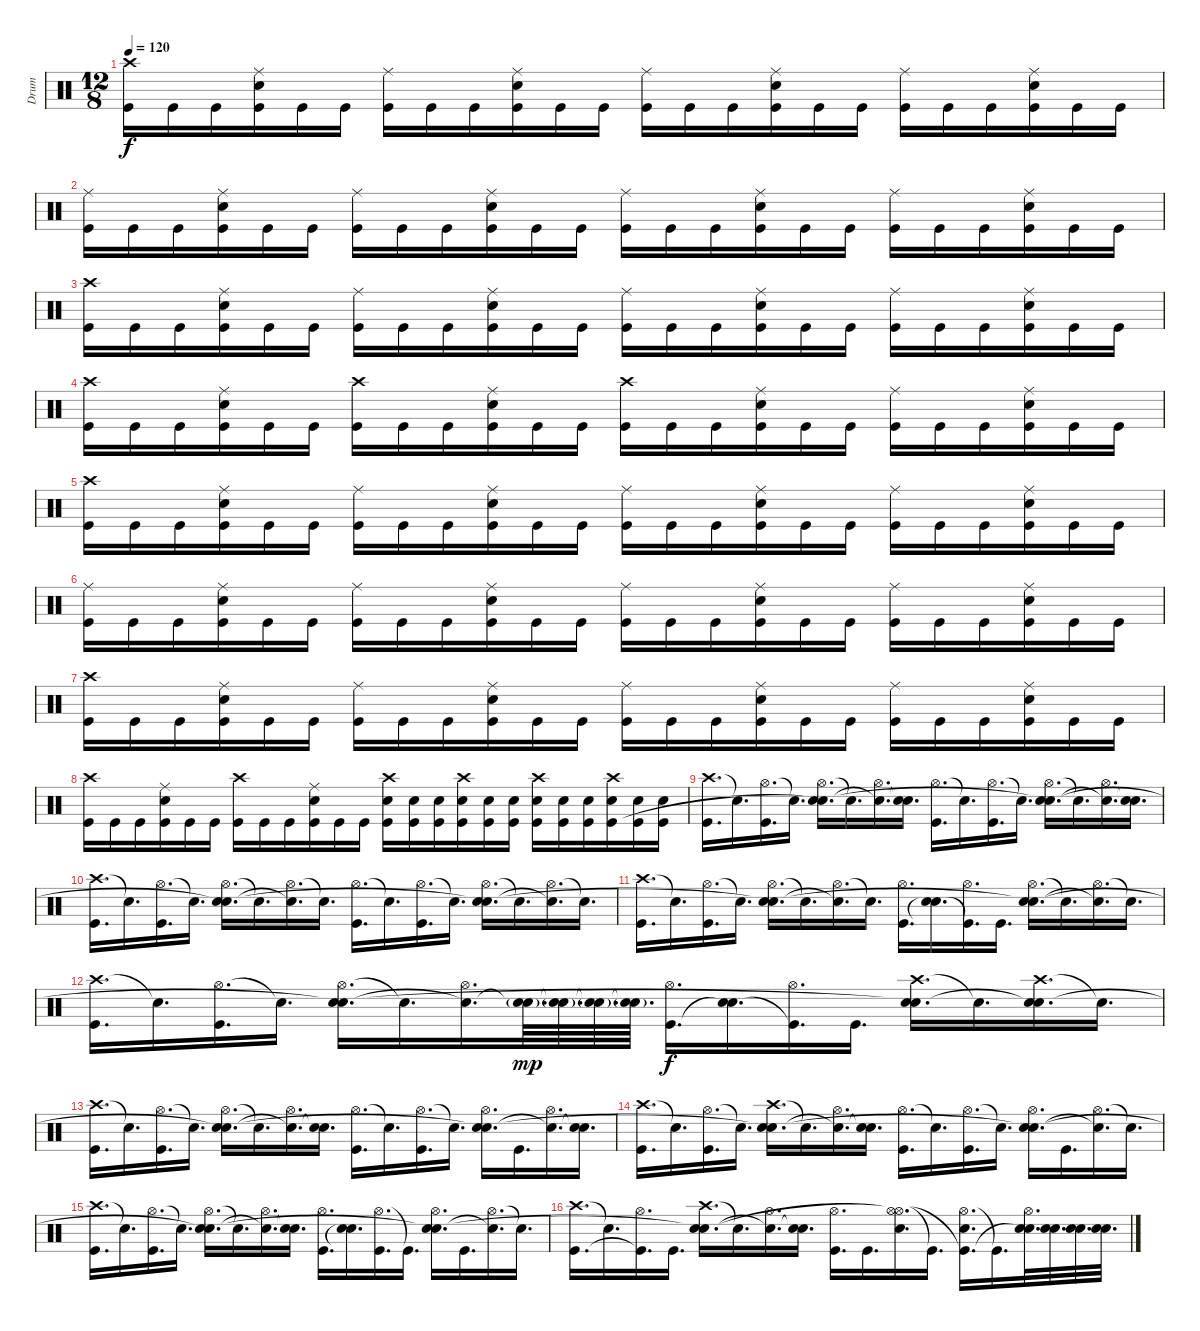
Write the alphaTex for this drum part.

\track ("Drum" "Drum") {instrument percussion}
\staff {score}
\articulation defaults
\ts (12 8)
\tempo 120
\clef neutral
\ks c
("Crash high (hit)" "Kick (hit)").16{dy f} "Kick (hit)".16 "Kick (hit)".16 ("Ride (middle)" "Electric Snare (hit)" "Kick (hit)").16 "Kick (hit)".16 "Kick (hit)".16 ("Ride (middle)" "Kick (hit)").16 "Kick (hit)".16 "Kick (hit)".16 ("Ride (middle)" "Electric Snare (hit)" "Kick (hit)").16 "Kick (hit)".16 "Kick (hit)".16 ("Ride (middle)" "Kick (hit)").16 "Kick (hit)".16 "Kick (hit)".16 ("Ride (middle)" "Electric Snare (hit)" "Kick (hit)").16 "Kick (hit)".16 "Kick (hit)".16 ("Ride (middle)" "Kick (hit)").16 "Kick (hit)".16 "Kick (hit)".16 ("Ride (middle)" "Electric Snare (hit)" "Kick (hit)").16 "Kick (hit)".16 "Kick (hit)".16 |
("Ride (middle)" "Kick (hit)").16 "Kick (hit)".16 "Kick (hit)".16 ("Ride (middle)" "Electric Snare (hit)" "Kick (hit)").16 "Kick (hit)".16 "Kick (hit)".16 ("Ride (middle)" "Kick (hit)").16 "Kick (hit)".16 "Kick (hit)".16 ("Ride (middle)" "Electric Snare (hit)" "Kick (hit)").16 "Kick (hit)".16 "Kick (hit)".16 ("Ride (middle)" "Kick (hit)").16 "Kick (hit)".16 "Kick (hit)".16 ("Ride (middle)" "Electric Snare (hit)" "Kick (hit)").16 "Kick (hit)".16 "Kick (hit)".16 ("Ride (middle)" "Kick (hit)").16 "Kick (hit)".16 "Kick (hit)".16 ("Ride (middle)" "Electric Snare (hit)" "Kick (hit)").16 "Kick (hit)".16 "Kick (hit)".16 |
("Crash high (hit)" "Kick (hit)").16 "Kick (hit)".16 "Kick (hit)".16 ("Ride (middle)" "Electric Snare (hit)" "Kick (hit)").16 "Kick (hit)".16 "Kick (hit)".16 ("Ride (middle)" "Kick (hit)").16 "Kick (hit)".16 "Kick (hit)".16 ("Ride (middle)" "Electric Snare (hit)" "Kick (hit)").16 "Kick (hit)".16 "Kick (hit)".16 ("Ride (middle)" "Kick (hit)").16 "Kick (hit)".16 "Kick (hit)".16 ("Ride (middle)" "Electric Snare (hit)" "Kick (hit)").16 "Kick (hit)".16 "Kick (hit)".16 ("Ride (middle)" "Kick (hit)").16 "Kick (hit)".16 "Kick (hit)".16 ("Ride (middle)" "Electric Snare (hit)" "Kick (hit)").16 "Kick (hit)".16 "Kick (hit)".16 |
("Crash high (hit)" "Kick (hit)").16 "Kick (hit)".16 "Kick (hit)".16 ("Ride (middle)" "Electric Snare (hit)" "Kick (hit)").16 "Kick (hit)".16 "Kick (hit)".16 ("Crash high (hit)" "Kick (hit)").16 "Kick (hit)".16 "Kick (hit)".16 ("Ride (middle)" "Electric Snare (hit)" "Kick (hit)").16 "Kick (hit)".16 "Kick (hit)".16 ("Crash high (hit)" "Kick (hit)").16 "Kick (hit)".16 "Kick (hit)".16 ("Ride (middle)" "Electric Snare (hit)" "Kick (hit)").16 "Kick (hit)".16 "Kick (hit)".16 ("Ride (middle)" "Kick (hit)").16 "Kick (hit)".16 "Kick (hit)".16 ("Ride (middle)" "Electric Snare (hit)" "Kick (hit)").16 "Kick (hit)".16 "Kick (hit)".16 |
("Crash high (hit)" "Kick (hit)").16 "Kick (hit)".16 "Kick (hit)".16 ("Ride (middle)" "Electric Snare (hit)" "Kick (hit)").16 "Kick (hit)".16 "Kick (hit)".16 ("Ride (middle)" "Kick (hit)").16 "Kick (hit)".16 "Kick (hit)".16 ("Ride (middle)" "Electric Snare (hit)" "Kick (hit)").16 "Kick (hit)".16 "Kick (hit)".16 ("Ride (middle)" "Kick (hit)").16 "Kick (hit)".16 "Kick (hit)".16 ("Ride (middle)" "Electric Snare (hit)" "Kick (hit)").16 "Kick (hit)".16 "Kick (hit)".16 ("Ride (middle)" "Kick (hit)").16 "Kick (hit)".16 "Kick (hit)".16 ("Ride (middle)" "Electric Snare (hit)" "Kick (hit)").16 "Kick (hit)".16 "Kick (hit)".16 |
("Ride (middle)" "Kick (hit)").16 "Kick (hit)".16 "Kick (hit)".16 ("Ride (middle)" "Electric Snare (hit)" "Kick (hit)").16 "Kick (hit)".16 "Kick (hit)".16 ("Ride (middle)" "Kick (hit)").16 "Kick (hit)".16 "Kick (hit)".16 ("Ride (middle)" "Electric Snare (hit)" "Kick (hit)").16 "Kick (hit)".16 "Kick (hit)".16 ("Ride (middle)" "Kick (hit)").16 "Kick (hit)".16 "Kick (hit)".16 ("Ride (middle)" "Electric Snare (hit)" "Kick (hit)").16 "Kick (hit)".16 "Kick (hit)".16 ("Ride (middle)" "Kick (hit)").16 "Kick (hit)".16 "Kick (hit)".16 ("Ride (middle)" "Electric Snare (hit)" "Kick (hit)").16 "Kick (hit)".16 "Kick (hit)".16 |
("Crash high (hit)" "Kick (hit)").16 "Kick (hit)".16 "Kick (hit)".16 ("Ride (middle)" "Electric Snare (hit)" "Kick (hit)").16 "Kick (hit)".16 "Kick (hit)".16 ("Ride (middle)" "Kick (hit)").16 "Kick (hit)".16 "Kick (hit)".16 ("Ride (middle)" "Electric Snare (hit)" "Kick (hit)").16 "Kick (hit)".16 "Kick (hit)".16 ("Ride (middle)" "Kick (hit)").16 "Kick (hit)".16 "Kick (hit)".16 ("Ride (middle)" "Electric Snare (hit)" "Kick (hit)").16 "Kick (hit)".16 "Kick (hit)".16 ("Ride (middle)" "Kick (hit)").16 "Kick (hit)".16 "Kick (hit)".16 ("Ride (middle)" "Electric Snare (hit)" "Kick (hit)").16 "Kick (hit)".16 "Kick (hit)".16 |
("Crash high (hit)" "Kick (hit)").16 "Kick (hit)".16 "Kick (hit)".16 ("Ride (middle)" "Electric Snare (hit)" "Kick (hit)").16 "Kick (hit)".16 "Kick (hit)".16 ("Crash high (hit)" "Kick (hit)").16 "Kick (hit)".16 "Kick (hit)".16 ("Ride (middle)" "Electric Snare (hit)" "Kick (hit)").16 "Kick (hit)".16 "Kick (hit)".16 ("Crash high (hit)" "Electric Snare (hit)" "Kick (hit)").16 ("Electric Snare (hit)" "Kick (hit)").16 ("Electric Snare (hit)" "Kick (hit)").16 ("Crash high (hit)" "Electric Snare (hit)" "Kick (hit)").16 ("Electric Snare (hit)" "Kick (hit)").16 ("Electric Snare (hit)" "Kick (hit)").16 ("Crash high (hit)" "Electric Snare (hit)" "Kick (hit)").16 ("Electric Snare (hit)" "Kick (hit)").16 ("Electric Snare (hit)" "Kick (hit)").16 ("Crash high (hit)" "Electric Snare (hit)" "Kick (hit)").16 ("Electric Snare (hit)" "Kick (hit)").16 ("Electric Snare (hit)" "Kick (hit)").16 |
("Crash high (hit)" "Kick (hit)").16{d} "Snare (hit)"{t}.16{d} ("Hi-Hat (open)" "Kick (hit)").16{d} "Snare (hit)"{t}.16{d} ("Hi-Hat (open)" "Electric Snare (hit)" "Snare (hit)"{t}).16{d} "Snare (hit)"{t}.16{d} ("Hi-Hat (open)" "Snare (hit)"{t}).16{d} ("Electric Snare (hit)" "Snare (hit)"{t}).16{d} ("Hi-Hat (open)" "Kick (hit)").16{d} "Snare (hit)"{t}.16{d} ("Hi-Hat (open)" "Kick (hit)").16{d} "Snare (hit)"{t}.16{d} ("Hi-Hat (open)" "Electric Snare (hit)" "Snare (hit)"{t}).16{d} "Snare (hit)"{t}.16{d} ("Hi-Hat (open)" "Snare (hit)"{t}).16{d} ("Electric Snare (hit)" "Snare (hit)"{t}).16{d} |
("Crash high (hit)" "Kick (hit)").16{d} "Snare (hit)"{t}.16{d} ("Hi-Hat (open)" "Kick (hit)").16{d} "Snare (hit)"{t}.16{d} ("Hi-Hat (open)" "Electric Snare (hit)" "Snare (hit)"{t}).16{d} "Snare (hit)"{t}.16{d} ("Hi-Hat (open)" "Snare (hit)"{t}).16{d} "Snare (hit)"{t}.16{d} ("Hi-Hat (open)" "Kick (hit)").16{d} "Snare (hit)"{t}.16{d} ("Hi-Hat (open)" "Kick (hit)").16{d} "Snare (hit)"{t}.16{d} ("Hi-Hat (open)" "Electric Snare (hit)" "Snare (hit)"{t}).16{d} "Snare (hit)"{t}.16{d} ("Hi-Hat (open)" "Snare (hit)"{t}).16{d} "Snare (hit)"{t}.16{d} |
("Crash high (hit)" "Kick (hit)").16{d} "Snare (hit)"{t}.16{d} ("Hi-Hat (open)" "Kick (hit)").16{d} "Snare (hit)"{t}.16{d} ("Hi-Hat (open)" "Electric Snare (hit)" "Snare (hit)"{t}).16{d} "Snare (hit)"{t}.16{d} ("Hi-Hat (open)" "Snare (hit)"{t}).16{d} "Snare (hit)"{t}.16{d} ("Hi-Hat (open)" "Kick (hit)").16{d} ("Electric Snare (hit)" "Snare (hit)"{t}).16{d} ("Hi-Hat (open)" "Kick (hit)"{t}).16{d} "Kick (hit)".16{d} ("Hi-Hat (open)" "Electric Snare (hit)" "Snare (hit)"{t}).16{d} "Snare (hit)"{t}.16{d} ("Hi-Hat (open)" "Snare (hit)"{t}).16{d} "Snare (hit)"{t}.16{d} |
("Crash high (hit)" "Kick (hit)").16{d} "Snare (hit)"{t}.16{d} ("Hi-Hat (open)" "Kick (hit)").16{d} "Snare (hit)"{t}.16{d} ("Hi-Hat (open)" "Electric Snare (hit)" "Snare (hit)"{t}).16{d} "Snare (hit)"{t}.16{d} ("Hi-Hat (open)" "Snare (hit)"{t}).16{d} ("Electric Snare (hit)"{g} "Snare (hit)"{t}).64{d dy mp} ("Electric Snare (hit)"{g} "Snare (hit)"{t}).64{d} ("Electric Snare (hit)"{g} "Snare (hit)"{t}).64{d} ("Electric Snare (hit)"{g} "Snare (hit)"{t}).64{d} ("Hi-Hat (open)" "Kick (hit)").16{d dy f} ("Electric Snare (hit)" "Snare (hit)"{t}).16{d} ("Hi-Hat (open)" "Kick (hit)"{t}).16{d} "Kick (hit)".16{d} ("Crash high (hit)" "Electric Snare (hit)" "Snare (hit)"{t}).16{d} "Snare (hit)"{t}.16{d} ("Crash high (hit)" "Electric Snare (hit)" "Snare (hit)"{t}).16{d} "Snare (hit)"{t}.16{d} |
("Crash high (hit)" "Kick (hit)").16{d} "Snare (hit)"{t}.16{d} ("Hi-Hat (open)" "Kick (hit)").16{d} "Snare (hit)"{t}.16{d} ("Hi-Hat (open)" "Electric Snare (hit)" "Snare (hit)"{t}).16{d} "Snare (hit)"{t}.16{d} ("Hi-Hat (open)" "Snare (hit)"{t}).16{d} ("Electric Snare (hit)" "Snare (hit)"{t}).16{d} ("Hi-Hat (open)" "Kick (hit)").16{d} "Snare (hit)"{t}.16{d} ("Hi-Hat (open)" "Kick (hit)").16{d} "Snare (hit)"{t}.16{d} ("Hi-Hat (open)" "Electric Snare (hit)" "Snare (hit)"{t}).16{d} "Kick (hit)".16{d} ("Hi-Hat (open)" "Snare (hit)"{t}).16{d} ("Electric Snare (hit)" "Snare (hit)"{t}).16{d} |
("Crash high (hit)" "Kick (hit)").16{d} "Snare (hit)"{t}.16{d} ("Hi-Hat (open)" "Kick (hit)").16{d} "Snare (hit)"{t}.16{d} ("Crash high (hit)" "Electric Snare (hit)" "Snare (hit)"{t}).16{d} "Snare (hit)"{t}.16{d} ("Hi-Hat (open)" "Snare (hit)"{t}).16{d} ("Electric Snare (hit)" "Snare (hit)"{t}).16{d} ("Hi-Hat (open)" "Kick (hit)").16{d} "Snare (hit)"{t}.16{d} ("Hi-Hat (open)" "Kick (hit)").16{d} "Snare (hit)"{t}.16{d} ("Hi-Hat (open)" "Electric Snare (hit)" "Snare (hit)"{t}).16{d} "Kick (hit)".16{d} ("Hi-Hat (open)" "Snare (hit)"{t}).16{d} "Snare (hit)"{t}.16{d} |
("Crash high (hit)" "Kick (hit)").16{d} "Snare (hit)"{t}.16{d} ("Hi-Hat (open)" "Kick (hit)").16{d} "Snare (hit)"{t}.16{d} ("Hi-Hat (open)" "Electric Snare (hit)" "Snare (hit)"{t}).16{d} "Snare (hit)"{t}.16{d} ("Hi-Hat (open)" "Snare (hit)"{t}).16{d} ("Electric Snare (hit)" "Snare (hit)"{t}).16{d} ("Hi-Hat (open)" "Kick (hit)").16{d} ("Electric Snare (hit)" "Snare (hit)"{t}).16{d} ("Hi-Hat (open)" "Kick (hit)").16{d} "Kick (hit)"{t}.16{d} ("Hi-Hat (open)" "Electric Snare (hit)" "Snare (hit)"{t}).16{d} "Kick (hit)".16{d} ("Hi-Hat (open)" "Snare (hit)"{t}).16{d} "Snare (hit)"{t}.16{d} |
("Crash high (hit)" "Kick (hit)").16{d} "Snare (hit)"{t}.16{d} ("Hi-Hat (open)" "Kick (hit)"{t}).16{d} "Kick (hit)".16{d} ("Crash high (hit)" "Electric Snare (hit)" "Snare (hit)"{t}).16{d} "Snare (hit)"{t}.16{d} ("Hi-Hat (open)" "Snare (hit)"{t}).16{d} ("Electric Snare (hit)" "Snare (hit)"{t}).16{d} ("Hi-Hat (open)" "Kick (hit)").16{d} "Kick (hit)".16{d} ("Hi-Hat (open)" "Electric Snare (hit)" "Hi-Hat (open)"{t}).16{d} "Kick (hit)"{t}.16{d} ("Hi-Hat (open)" "Electric Snare (hit)" "Kick (hit)"{t}).16{d} "Kick (hit)"{t}.16{d} ("Hi-Hat (open)" "Electric Snare (hit)" "Snare (hit)"{t}).32{d} ("Electric Snare (hit)" "Snare (hit)"{t}).32{d} ("Electric Snare (hit)" "Snare (hit)"{t}).32{d} ("Electric Snare (hit)" "Snare (hit)"{t}).32{d}
